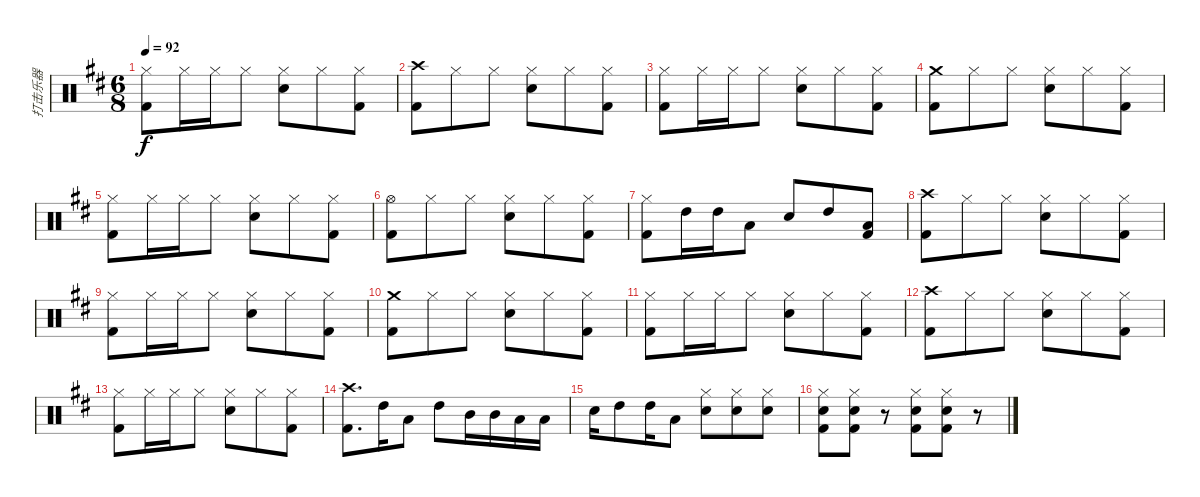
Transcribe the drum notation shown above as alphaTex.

\track ("打击乐器" "打击乐器") {instrument percussion}
\staff {score}
\articulation defaults
\ts (6 8)
\tempo 92
\clef neutral
\ks d
("Hi-Hat (closed)" "Kick (hit) 2").8{dy f} "Hi-Hat (closed)".16 "Hi-Hat (closed)".16 "Hi-Hat (closed)".8 ("Hi-Hat (closed)" "Snare (hit) 2").8 "Hi-Hat (closed)".8 ("Hi-Hat (closed)" "Kick (hit) 2").8 |
("Crash high (hit)" "Kick (hit) 2").8 "Hi-Hat (closed)".8 "Hi-Hat (closed)".8 ("Hi-Hat (closed)" "Snare (hit) 2").8 "Hi-Hat (closed)".8 ("Hi-Hat (closed)" "Kick (hit) 2").8 |
("Hi-Hat (closed)" "Kick (hit) 2").8 "Hi-Hat (closed)".16 "Hi-Hat (closed)".16 "Hi-Hat (closed)".8 ("Hi-Hat (closed)" "Snare (hit) 2").8 "Hi-Hat (closed)".8 ("Hi-Hat (closed)" "Kick (hit) 2").8 |
("Crash medium (hit)" "Kick (hit) 2").8 "Hi-Hat (closed)".8 "Hi-Hat (closed)".8 ("Hi-Hat (closed)" "Snare (hit) 2").8 "Hi-Hat (closed)".8 ("Hi-Hat (closed)" "Kick (hit) 2").8 |
("Hi-Hat (closed)" "Kick (hit) 2").8 "Hi-Hat (closed)".16 "Hi-Hat (closed)".16 "Hi-Hat (closed)".8 ("Hi-Hat (closed)" "Snare (hit) 2").8 "Hi-Hat (closed)".8 ("Hi-Hat (closed)" "Kick (hit) 2").8 |
("Hi-Hat (open)" "Kick (hit) 2").8 "Hi-Hat (closed)".8 "Hi-Hat (closed)".8 ("Hi-Hat (closed)" "Snare (hit) 2").8 "Hi-Hat (closed)".8 ("Hi-Hat (closed)" "Kick (hit) 2").8 |
("Hi-Hat (closed)" "Kick (hit) 2").8 "High Tom (hit)".16 "High Tom (hit)".16 "Low Tom (hit)".8 "Snare (hit) 2".8 "High Tom (hit)".8 ("Low Tom (hit)" "Kick (hit) 2").8 |
("Crash high (hit)" "Kick (hit) 2").8 "Hi-Hat (closed)".8 "Hi-Hat (closed)".8 ("Hi-Hat (closed)" "Snare (hit) 2").8 "Hi-Hat (closed)".8 ("Hi-Hat (closed)" "Kick (hit) 2").8 |
("Hi-Hat (closed)" "Kick (hit) 2").8 "Hi-Hat (closed)".16 "Hi-Hat (closed)".16 "Hi-Hat (closed)".8 ("Hi-Hat (closed)" "Snare (hit) 2").8 "Hi-Hat (closed)".8 ("Hi-Hat (closed)" "Kick (hit) 2").8 |
("Crash medium (hit)" "Kick (hit) 2").8 "Hi-Hat (closed)".8 "Hi-Hat (closed)".8 ("Hi-Hat (closed)" "Snare (hit) 2").8 "Hi-Hat (closed)".8 ("Hi-Hat (closed)" "Kick (hit) 2").8 |
("Hi-Hat (closed)" "Kick (hit) 2").8 "Hi-Hat (closed)".16 "Hi-Hat (closed)".16 "Hi-Hat (closed)".8 ("Hi-Hat (closed)" "Snare (hit) 2").8 "Hi-Hat (closed)".8 ("Hi-Hat (closed)" "Kick (hit) 2").8 |
("Crash high (hit)" "Kick (hit) 2").8 "Hi-Hat (closed)".8 "Hi-Hat (closed)".8 ("Hi-Hat (closed)" "Snare (hit) 2").8 "Hi-Hat (closed)".8 ("Hi-Hat (closed)" "Kick (hit) 2").8 |
("Hi-Hat (closed)" "Kick (hit) 2").8 "Hi-Hat (closed)".16 "Hi-Hat (closed)".16 "Hi-Hat (closed)".8 ("Hi-Hat (closed)" "Snare (hit) 2").8 "Hi-Hat (closed)".8 ("Hi-Hat (closed)" "Kick (hit) 2").8 |
("Crash high (hit)" "Kick (hit) 2").8{d} "High Tom (hit)".16 "Low Tom (hit)".8 "High Tom (hit)".8 "Mid Tom (hit)".16 "Mid Tom (hit)".16 "Low Tom (hit)".16 "Low Tom (hit)".16 |
"Snare (hit) 2".16 "High Tom (hit)".8 "High Tom (hit)".16 "Low Tom (hit)".8 ("Hi-Hat (closed)" "Snare (hit) 2").8 ("Hi-Hat (closed)" "Snare (hit) 2").8 ("Hi-Hat (closed)" "Snare (hit) 2").8 |
("Hi-Hat (closed)" "Snare (hit) 2" "Kick (hit) 2").8 ("Hi-Hat (closed)" "Snare (hit) 2" "Kick (hit) 2").8 r.8 ("Hi-Hat (closed)" "Snare (hit) 2" "Kick (hit) 2").8 ("Hi-Hat (closed)" "Snare (hit) 2" "Kick (hit) 2").8 r.8
